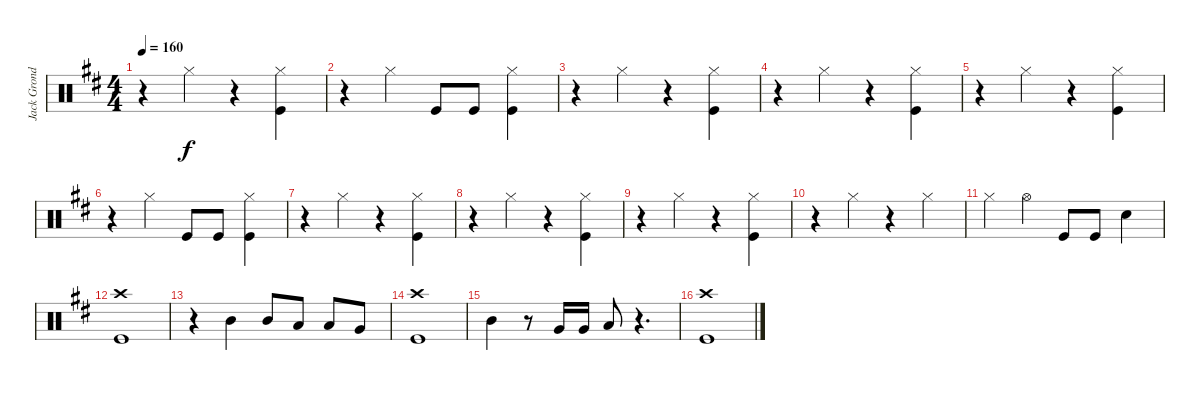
\track ("Jack Grondin Drums" "Jack Grond") {instrument percussion}
\staff {score}
\articulation defaults
\ts (4 4)
\tempo 160
\clef neutral
\ks d
r.4{dy f} "Hi-Hat (closed)".4 r.4 ("Hi-Hat (closed)" "Kick (hit)").4 |
r.4 "Hi-Hat (closed)".4 "Kick (hit)".8 "Kick (hit)".8 ("Hi-Hat (closed)" "Kick (hit)").4 |
r.4 "Hi-Hat (closed)".4 r.4 ("Hi-Hat (closed)" "Kick (hit)").4 |
r.4 "Hi-Hat (closed)".4 r.4 ("Hi-Hat (closed)" "Kick (hit)").4 |
r.4 "Hi-Hat (closed)".4 r.4 ("Hi-Hat (closed)" "Kick (hit)").4 |
r.4 "Hi-Hat (closed)".4 "Kick (hit)".8 "Kick (hit)".8 ("Hi-Hat (closed)" "Kick (hit)").4 |
r.4 "Hi-Hat (closed)".4 r.4 ("Hi-Hat (closed)" "Kick (hit)").4 |
r.4 "Hi-Hat (closed)".4 r.4 ("Hi-Hat (closed)" "Kick (hit)").4 |
r.4 "Hi-Hat (closed)".4 r.4 ("Hi-Hat (closed)" "Kick (hit)").4 |
r.4 "Hi-Hat (closed)".4 r.4 "Hi-Hat (closed)".4 |
"Hi-Hat (closed)".4 "Hi-Hat (open)".4 "Kick (hit)".8 "Kick (hit)".8 "Snare (hit) 2".4 |
("Crash high (hit)" "Kick (hit)").1 |
r.4 "Mid Tom (hit)".4 "Mid Tom (hit)".8 "Low Tom (hit)".8 "Low Tom (hit)".8 "Very Low Tom (hit)".8 |
("Crash high (hit)" "Kick (hit)").1 |
"Mid Tom (hit)".4 r.8 "Very Low Tom (hit)".16 "Very Low Tom (hit)".16 "Low Floor Tom (hit)".8 r.4{d} |
("Crash high (hit)" "Kick (hit)").1
